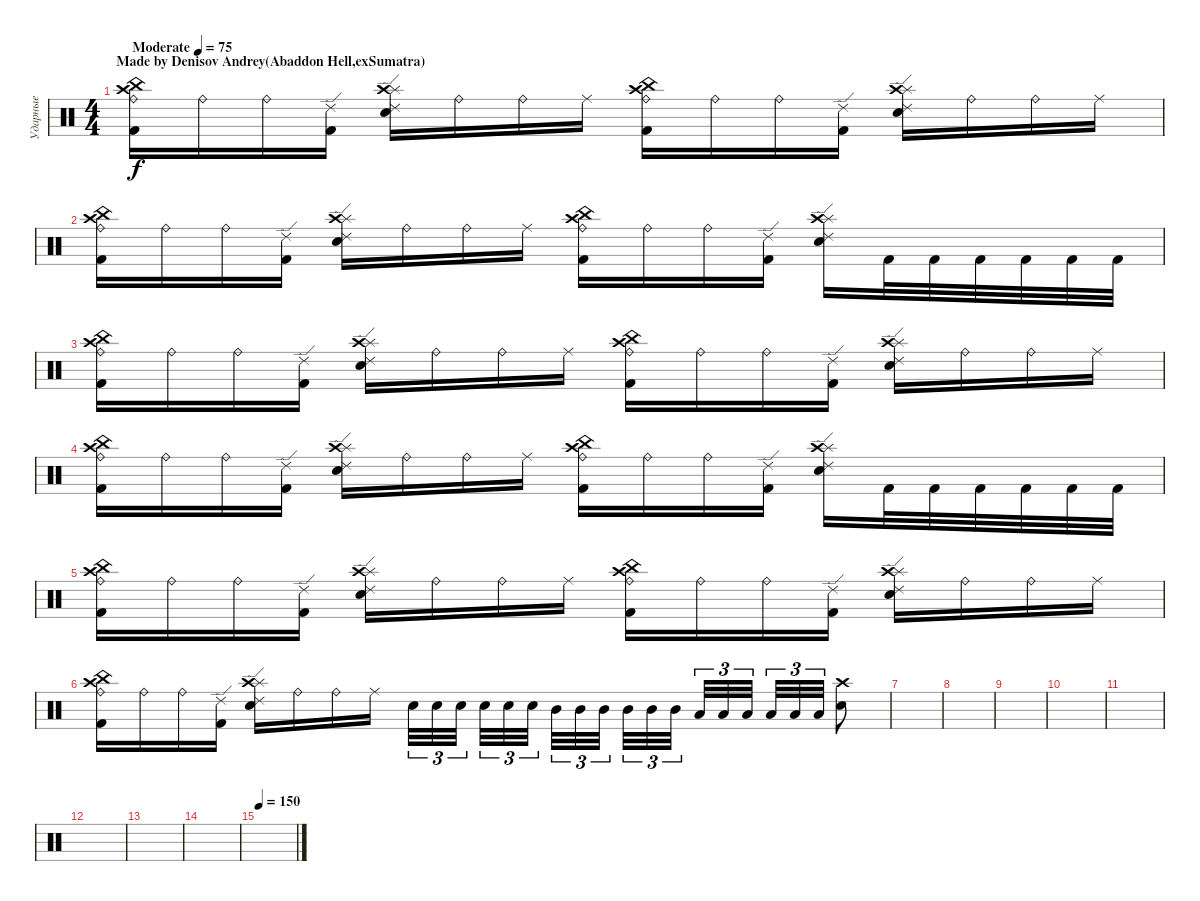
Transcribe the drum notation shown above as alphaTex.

\track ("Ударные" "Ударные") {instrument percussion}
\staff {score}
\articulation defaults
\ts (4 4)
\section ("" "Made by Denisov Andrey(Abaddon Hell,exSumatra)")
\tempo (75 "Moderate")
\clef neutral
\ks c
("China (hit)" "Crash high (hit)" "Ride (bell)" "Kick (hit) 2").16{dy f} "Ride (bell)".16 "Ride (bell)".16 ("Ride (edge) 2" "Kick (hit) 2").16 ("Splash (hit)" "Crash high (hit)" "Ride (edge) 2" "Electric Snare (hit)").16 "Ride (bell)".16 "Ride (bell)".16 "Ride (middle)".16 ("China (hit)" "Crash high (hit)" "Ride (bell)" "Kick (hit) 2").16 "Ride (bell)".16 "Ride (bell)".16 ("Ride (edge) 2" "Kick (hit) 2").16 ("Splash (hit)" "Crash high (hit)" "Ride (edge) 2" "Electric Snare (hit)").16 "Ride (bell)".16 "Ride (bell)".16 "Ride (middle)".16 |
("China (hit)" "Crash high (hit)" "Ride (bell)" "Kick (hit) 2").16 "Ride (bell)".16 "Ride (bell)".16 ("Ride (edge) 2" "Kick (hit) 2").16 ("Splash (hit)" "Crash high (hit)" "Ride (edge) 2" "Electric Snare (hit)").16 "Ride (bell)".16 "Ride (bell)".16 "Ride (middle)".16 ("China (hit)" "Crash high (hit)" "Ride (bell)" "Kick (hit) 2").16 "Ride (bell)".16 "Ride (bell)".16 ("Ride (edge) 2" "Kick (hit) 2").16 ("Splash (hit)" "Crash high (hit)" "Ride (edge) 2" "Electric Snare (hit)").16 "Kick (hit) 2".32 "Kick (hit) 2".32 "Kick (hit) 2".32 "Kick (hit) 2".32 "Kick (hit) 2".32 "Kick (hit) 2".32 |
("China (hit)" "Crash high (hit)" "Ride (bell)" "Kick (hit) 2").16 "Ride (bell)".16 "Ride (bell)".16 ("Ride (edge) 2" "Kick (hit) 2").16 ("Splash (hit)" "Crash high (hit)" "Ride (edge) 2" "Electric Snare (hit)").16 "Ride (bell)".16 "Ride (bell)".16 "Ride (middle)".16 ("China (hit)" "Crash high (hit)" "Ride (bell)" "Kick (hit) 2").16 "Ride (bell)".16 "Ride (bell)".16 ("Ride (edge) 2" "Kick (hit) 2").16 ("Splash (hit)" "Crash high (hit)" "Ride (edge) 2" "Electric Snare (hit)").16 "Ride (bell)".16 "Ride (bell)".16 "Ride (middle)".16 |
("China (hit)" "Crash high (hit)" "Ride (bell)" "Kick (hit) 2").16 "Ride (bell)".16 "Ride (bell)".16 ("Ride (edge) 2" "Kick (hit) 2").16 ("Splash (hit)" "Crash high (hit)" "Ride (edge) 2" "Electric Snare (hit)").16 "Ride (bell)".16 "Ride (bell)".16 "Ride (middle)".16 ("China (hit)" "Crash high (hit)" "Ride (bell)" "Kick (hit) 2").16 "Ride (bell)".16 "Ride (bell)".16 ("Ride (edge) 2" "Kick (hit) 2").16 ("Splash (hit)" "Crash high (hit)" "Ride (edge) 2" "Electric Snare (hit)").16 "Kick (hit) 2".32 "Kick (hit) 2".32 "Kick (hit) 2".32 "Kick (hit) 2".32 "Kick (hit) 2".32 "Kick (hit) 2".32 |
("China (hit)" "Crash high (hit)" "Ride (bell)" "Kick (hit) 2").16 "Ride (bell)".16 "Ride (bell)".16 ("Ride (edge) 2" "Kick (hit) 2").16 ("Splash (hit)" "Crash high (hit)" "Ride (edge) 2" "Electric Snare (hit)").16 "Ride (bell)".16 "Ride (bell)".16 "Ride (middle)".16 ("China (hit)" "Crash high (hit)" "Ride (bell)" "Kick (hit) 2").16 "Ride (bell)".16 "Ride (bell)".16 ("Ride (edge) 2" "Kick (hit) 2").16 ("Splash (hit)" "Crash high (hit)" "Ride (edge) 2" "Electric Snare (hit)").16 "Ride (bell)".16 "Ride (bell)".16 "Ride (middle)".16 |
("China (hit)" "Crash high (hit)" "Ride (bell)" "Kick (hit) 2").16 "Ride (bell)".16 "Ride (bell)".16 ("Ride (edge) 2" "Kick (hit) 2").16 ("Splash (hit)" "Crash high (hit)" "Ride (edge) 2" "Electric Snare (hit)").16 "Ride (bell)".16 "Ride (bell)".16 "Ride (middle)".16 "Electric Snare (hit)".32{tu (3 2)} "Electric Snare (hit)".32{tu (3 2)} "Electric Snare (hit)".32{tu (3 2) beam splitsecondary} "Electric Snare (hit)".32{tu (3 2)} "Electric Snare (hit)".32{tu (3 2)} "Electric Snare (hit)".32{tu (3 2) beam splitsecondary} "Mid Tom (hit)".32{tu (3 2)} "Mid Tom (hit)".32{tu (3 2)} "Mid Tom (hit)".32{tu (3 2) beam splitsecondary} "Mid Tom (hit)".32{tu (3 2)} "Mid Tom (hit)".32{tu (3 2)} "Mid Tom (hit)".32{tu (3 2)} "Low Tom (hit)".32{tu (3 2)} "Low Tom (hit)".32{tu (3 2)} "Low Tom (hit)".32{tu (3 2) beam splitsecondary} "Low Tom (hit)".32{tu (3 2)} "Low Tom (hit)".32{tu (3 2)} "Low Tom (hit)".32{tu (3 2)} ("Crash high (hit)" "Electric Snare (hit)").8 |
|
|
|
|
|
|
|
|
\tempo 150
